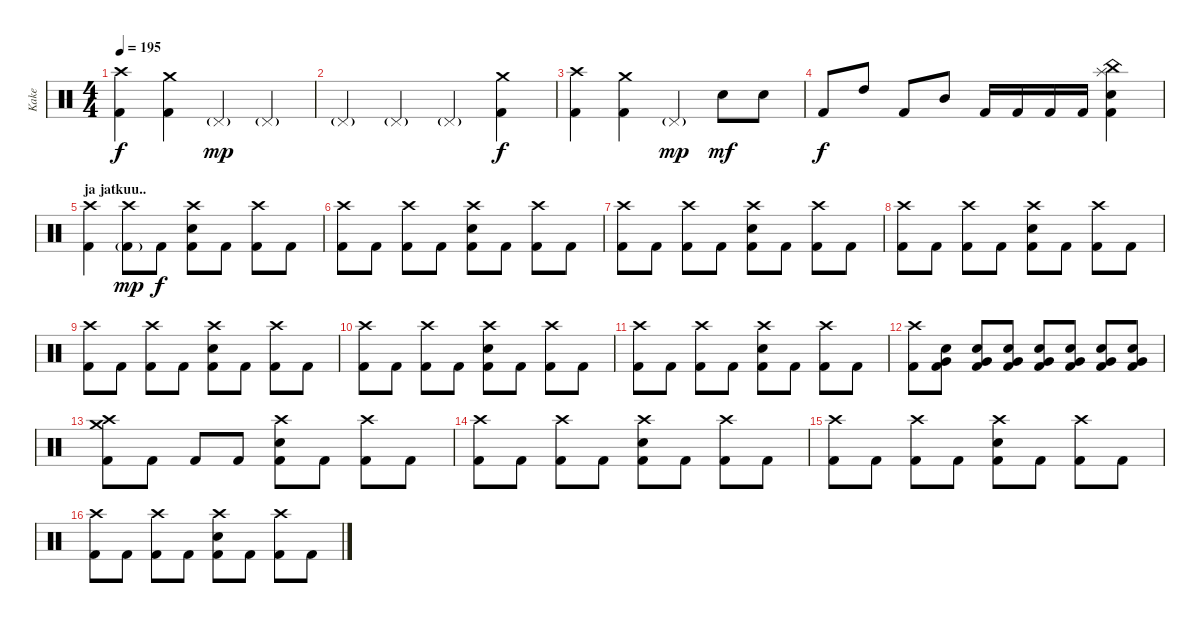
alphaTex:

\track ("Kake " "Kake ") {instrument percussion}
\staff {score}
\articulation defaults
\ts (4 4)
\tempo 195
\clef neutral
\ks c
("Crash high (hit)" "Kick (hit) 2").4{dy f} ("Crash medium (hit)" "Kick (hit) 2").4 "Pedal Hi-Hat (hit)"{g}.4{dy mp} "Pedal Hi-Hat (hit)"{g}.4 |
"Pedal Hi-Hat (hit)"{g}.4 "Pedal Hi-Hat (hit)"{g}.4 "Pedal Hi-Hat (hit)"{g}.4 ("Crash medium (hit)" "Kick (hit) 2").4{dy f} |
("Crash high (hit)" "Kick (hit) 2").4 ("Crash medium (hit)" "Kick (hit) 2").4 "Pedal Hi-Hat (hit)"{g}.4{dy mp} "Electric Snare (hit)".8{dy mf} "Electric Snare (hit)".8 |
"Kick (hit) 2".8{dy f} "High Tom (hit)".8 "Kick (hit) 2".8 "Mid Tom (hit)".8 "Kick (hit) 2".16 "Kick (hit) 2".16 "Kick (hit) 2".16 "Kick (hit) 2".16 ("China (hit)" "Splash (hit)" "Electric Snare (hit)" "Kick (hit) 2").4 |
\section ("" "ja jatkuu..")
("Crash high (hit)" "Kick (hit) 2").4 ("Crash high (hit)" "Kick (hit) 2"{g}).8{dy mp} "Kick (hit) 2".8{dy f} ("Crash high (hit)" "Electric Snare (hit)" "Kick (hit) 2").8 "Kick (hit) 2".8 ("Crash high (hit)" "Kick (hit) 2").8 "Kick (hit) 2".8 |
("Crash high (hit)" "Kick (hit) 2").8 "Kick (hit) 2".8 ("Crash high (hit)" "Kick (hit) 2").8 "Kick (hit) 2".8 ("Crash high (hit)" "Electric Snare (hit)" "Kick (hit) 2").8 "Kick (hit) 2".8 ("Crash high (hit)" "Kick (hit) 2").8 "Kick (hit) 2".8 |
("Crash high (hit)" "Kick (hit) 2").8 "Kick (hit) 2".8 ("Crash high (hit)" "Kick (hit) 2").8 "Kick (hit) 2".8 ("Crash high (hit)" "Electric Snare (hit)" "Kick (hit) 2").8 "Kick (hit) 2".8 ("Crash high (hit)" "Kick (hit) 2").8 "Kick (hit) 2".8 |
("Crash high (hit)" "Kick (hit) 2").8 "Kick (hit) 2".8 ("Crash high (hit)" "Kick (hit) 2").8 "Kick (hit) 2".8 ("Crash high (hit)" "Electric Snare (hit)" "Kick (hit) 2").8 "Kick (hit) 2".8 ("Crash high (hit)" "Kick (hit) 2").8 "Kick (hit) 2".8 |
("Crash high (hit)" "Kick (hit) 2").8 "Kick (hit) 2".8 ("Crash high (hit)" "Kick (hit) 2").8 "Kick (hit) 2".8 ("Crash high (hit)" "Electric Snare (hit)" "Kick (hit) 2").8 "Kick (hit) 2".8 ("Crash high (hit)" "Kick (hit) 2").8 "Kick (hit) 2".8 |
("Crash high (hit)" "Kick (hit) 2").8 "Kick (hit) 2".8 ("Crash high (hit)" "Kick (hit) 2").8 "Kick (hit) 2".8 ("Crash high (hit)" "Electric Snare (hit)" "Kick (hit) 2").8 "Kick (hit) 2".8 ("Crash high (hit)" "Kick (hit) 2").8 "Kick (hit) 2".8 |
("Crash high (hit)" "Kick (hit) 2").8 "Kick (hit) 2".8 ("Crash high (hit)" "Kick (hit) 2").8 "Kick (hit) 2".8 ("Crash high (hit)" "Electric Snare (hit)" "Kick (hit) 2").8 "Kick (hit) 2".8 ("Crash high (hit)" "Kick (hit) 2").8 "Kick (hit) 2".8 |
("Crash high (hit)" "Kick (hit) 2").8 ("Very Low Tom (hit)" "Electric Snare (hit)" "Kick (hit) 2").8 ("Very Low Tom (hit)" "Electric Snare (hit)" "Kick (hit) 2").8 ("Very Low Tom (hit)" "Electric Snare (hit)" "Kick (hit) 2").8 ("Very Low Tom (hit)" "Electric Snare (hit)" "Kick (hit) 2").8 ("Very Low Tom (hit)" "Electric Snare (hit)" "Kick (hit) 2").8 ("Very Low Tom (hit)" "Electric Snare (hit)" "Kick (hit) 2").8 ("Very Low Tom (hit)" "Electric Snare (hit)" "Kick (hit) 2").8 |
("Crash high (hit)" "Crash medium (hit)" "Kick (hit) 2").8 "Kick (hit) 2".8 "Kick (hit) 2".8 "Kick (hit) 2".8 ("Crash high (hit)" "Electric Snare (hit)" "Kick (hit) 2").8 "Kick (hit) 2".8 ("Crash high (hit)" "Kick (hit) 2").8 "Kick (hit) 2".8 |
("Crash high (hit)" "Kick (hit) 2").8 "Kick (hit) 2".8 ("Crash high (hit)" "Kick (hit) 2").8 "Kick (hit) 2".8 ("Crash high (hit)" "Electric Snare (hit)" "Kick (hit) 2").8 "Kick (hit) 2".8 ("Crash high (hit)" "Kick (hit) 2").8 "Kick (hit) 2".8 |
("Crash high (hit)" "Kick (hit) 2").8 "Kick (hit) 2".8 ("Crash high (hit)" "Kick (hit) 2").8 "Kick (hit) 2".8 ("Crash high (hit)" "Electric Snare (hit)" "Kick (hit) 2").8 "Kick (hit) 2".8 ("Crash high (hit)" "Kick (hit) 2").8 "Kick (hit) 2".8 |
("Crash high (hit)" "Kick (hit) 2").8 "Kick (hit) 2".8 ("Crash high (hit)" "Kick (hit) 2").8 "Kick (hit) 2".8 ("Crash high (hit)" "Electric Snare (hit)" "Kick (hit) 2").8 "Kick (hit) 2".8 ("Crash high (hit)" "Kick (hit) 2").8 "Kick (hit) 2".8
